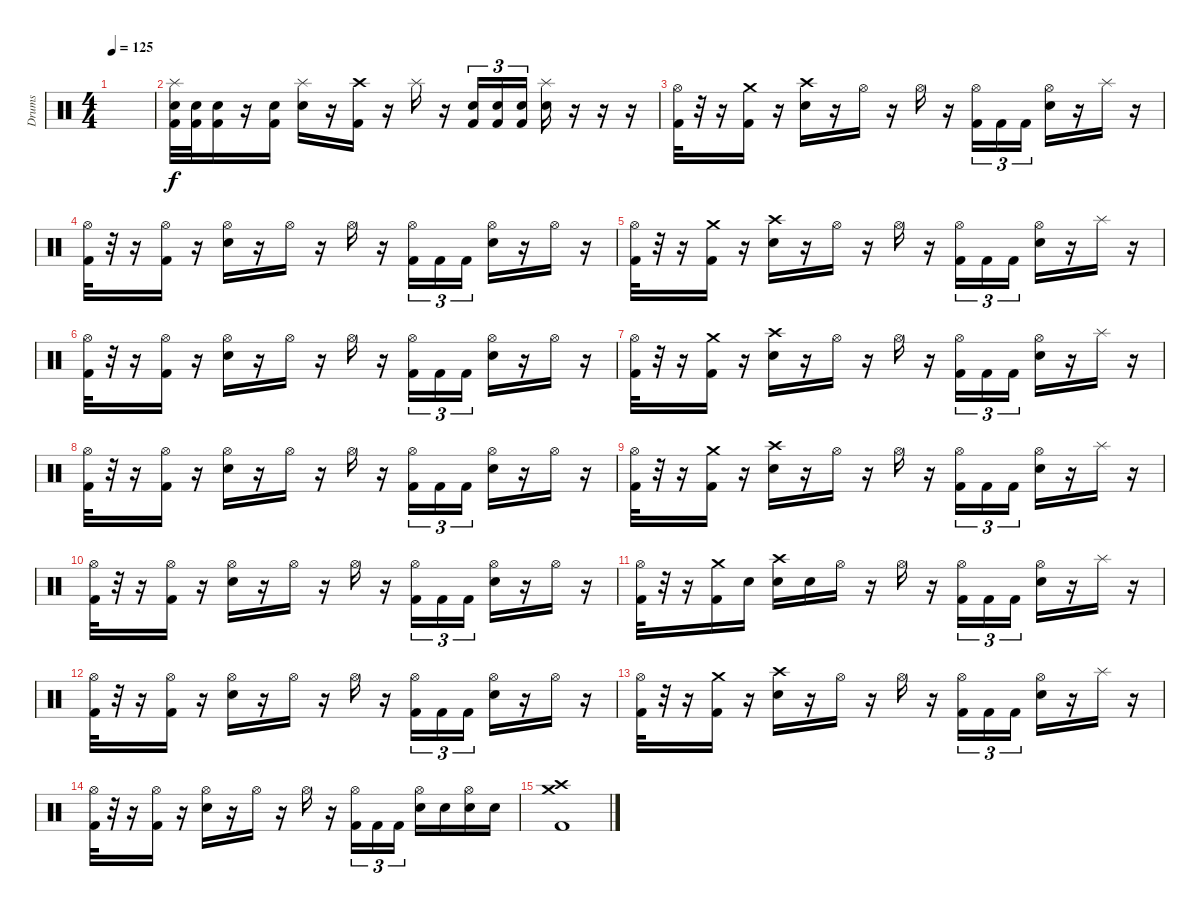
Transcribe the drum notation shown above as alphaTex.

\track ("Drums" "Drums") {instrument percussion}
\staff {score}
\articulation defaults
\ts (4 4)
\tempo 125
\clef neutral
\ks c
|
("Splash (hit)" "Snare (hit) 2" "Kick (hit) 2").32 ("Snare (hit) 2" "Kick (hit) 2").32 ("Snare (hit) 2" "Kick (hit) 2").16 r.16 ("Snare (hit) 2" "Kick (hit) 2").16 ("Splash (hit)" "Snare (hit) 2").16 r.16 ("Crash high (hit)" "Kick (hit) 2").16 r.16 "Splash (hit)".16 r.16 ("Snare (hit) 2" "Kick (hit) 2").16{tu (3 2)} ("Snare (hit) 2" "Kick (hit) 2").16{tu (3 2)} ("Snare (hit) 2" "Kick (hit) 2").16{tu (3 2)} ("Splash (hit)" "Snare (hit) 2").16 r.16 r.16 r.16 |
("Hi-Hat (open)" "Kick (hit) 2").32 r.32 r.16 ("Crash medium (hit)" "Kick (hit) 2").16 r.16 ("Crash high (hit)" "Snare (hit) 2").16 r.16 "Hi-Hat (open)".16 r.16 "Hi-Hat (open)".16 r.16 ("Hi-Hat (open)" "Kick (hit) 2").16{tu (3 2)} "Kick (hit) 2".16{tu (3 2)} "Kick (hit) 2".16{tu (3 2)} ("Hi-Hat (open)" "Snare (hit) 2").16 r.16 "Splash (hit)".16 r.16 |
("Hi-Hat (open)" "Kick (hit) 2").32 r.32 r.16 ("Hi-Hat (open)" "Kick (hit) 2").16 r.16 ("Hi-Hat (open)" "Snare (hit) 2").16 r.16 "Hi-Hat (open)".16 r.16 "Hi-Hat (open)".16 r.16 ("Hi-Hat (open)" "Kick (hit) 2").16{tu (3 2)} "Kick (hit) 2".16{tu (3 2)} "Kick (hit) 2".16{tu (3 2)} ("Hi-Hat (open)" "Snare (hit) 2").16 r.16 "Hi-Hat (open)".16 r.16 |
("Hi-Hat (open)" "Kick (hit) 2").32 r.32 r.16 ("Crash medium (hit)" "Kick (hit) 2").16 r.16 ("Crash high (hit)" "Snare (hit) 2").16 r.16 "Hi-Hat (open)".16 r.16 "Hi-Hat (open)".16 r.16 ("Hi-Hat (open)" "Kick (hit) 2").16{tu (3 2)} "Kick (hit) 2".16{tu (3 2)} "Kick (hit) 2".16{tu (3 2)} ("Hi-Hat (open)" "Snare (hit) 2").16 r.16 "Splash (hit)".16 r.16 |
("Hi-Hat (open)" "Kick (hit) 2").32 r.32 r.16 ("Hi-Hat (open)" "Kick (hit) 2").16 r.16 ("Hi-Hat (open)" "Snare (hit) 2").16 r.16 "Hi-Hat (open)".16 r.16 "Hi-Hat (open)".16 r.16 ("Hi-Hat (open)" "Kick (hit) 2").16{tu (3 2)} "Kick (hit) 2".16{tu (3 2)} "Kick (hit) 2".16{tu (3 2)} ("Hi-Hat (open)" "Snare (hit) 2").16 r.16 "Hi-Hat (open)".16 r.16 |
("Hi-Hat (open)" "Kick (hit) 2").32 r.32 r.16 ("Crash medium (hit)" "Kick (hit) 2").16 r.16 ("Crash high (hit)" "Snare (hit) 2").16 r.16 "Hi-Hat (open)".16 r.16 "Hi-Hat (open)".16 r.16 ("Hi-Hat (open)" "Kick (hit) 2").16{tu (3 2)} "Kick (hit) 2".16{tu (3 2)} "Kick (hit) 2".16{tu (3 2)} ("Hi-Hat (open)" "Snare (hit) 2").16 r.16 "Splash (hit)".16 r.16 |
("Hi-Hat (open)" "Kick (hit) 2").32 r.32 r.16 ("Hi-Hat (open)" "Kick (hit) 2").16 r.16 ("Hi-Hat (open)" "Snare (hit) 2").16 r.16 "Hi-Hat (open)".16 r.16 "Hi-Hat (open)".16 r.16 ("Hi-Hat (open)" "Kick (hit) 2").16{tu (3 2)} "Kick (hit) 2".16{tu (3 2)} "Kick (hit) 2".16{tu (3 2)} ("Hi-Hat (open)" "Snare (hit) 2").16 r.16 "Hi-Hat (open)".16 r.16 |
("Hi-Hat (open)" "Kick (hit) 2").32 r.32 r.16 ("Crash medium (hit)" "Kick (hit) 2").16 r.16 ("Crash high (hit)" "Snare (hit) 2").16 r.16 "Hi-Hat (open)".16 r.16 "Hi-Hat (open)".16 r.16 ("Hi-Hat (open)" "Kick (hit) 2").16{tu (3 2)} "Kick (hit) 2".16{tu (3 2)} "Kick (hit) 2".16{tu (3 2)} ("Hi-Hat (open)" "Snare (hit) 2").16 r.16 "Splash (hit)".16 r.16 |
("Hi-Hat (open)" "Kick (hit) 2").32 r.32 r.16 ("Hi-Hat (open)" "Kick (hit) 2").16 r.16 ("Hi-Hat (open)" "Snare (hit) 2").16 r.16 "Hi-Hat (open)".16 r.16 "Hi-Hat (open)".16 r.16 ("Hi-Hat (open)" "Kick (hit) 2").16{tu (3 2)} "Kick (hit) 2".16{tu (3 2)} "Kick (hit) 2".16{tu (3 2)} ("Hi-Hat (open)" "Snare (hit) 2").16 r.16 "Hi-Hat (open)".16 r.16 |
("Hi-Hat (open)" "Kick (hit) 2").32 r.32 r.16 ("Crash medium (hit)" "Kick (hit) 2").16 "Snare (hit) 2".16 ("Crash high (hit)" "Snare (hit) 2").16 "Snare (hit) 2".16 "Hi-Hat (open)".16 r.16 "Hi-Hat (open)".16 r.16 ("Hi-Hat (open)" "Kick (hit) 2").16{tu (3 2)} "Kick (hit) 2".16{tu (3 2)} "Kick (hit) 2".16{tu (3 2)} ("Hi-Hat (open)" "Snare (hit) 2").16 r.16 "Splash (hit)".16 r.16 |
("Hi-Hat (open)" "Kick (hit) 2").32 r.32 r.16 ("Hi-Hat (open)" "Kick (hit) 2").16 r.16 ("Hi-Hat (open)" "Snare (hit) 2").16 r.16 "Hi-Hat (open)".16 r.16 "Hi-Hat (open)".16 r.16 ("Hi-Hat (open)" "Kick (hit) 2").16{tu (3 2)} "Kick (hit) 2".16{tu (3 2)} "Kick (hit) 2".16{tu (3 2)} ("Hi-Hat (open)" "Snare (hit) 2").16 r.16 "Hi-Hat (open)".16 r.16 |
("Hi-Hat (open)" "Kick (hit) 2").32 r.32 r.16 ("Crash medium (hit)" "Kick (hit) 2").16 r.16 ("Crash high (hit)" "Snare (hit) 2").16 r.16 "Hi-Hat (open)".16 r.16 "Hi-Hat (open)".16 r.16 ("Hi-Hat (open)" "Kick (hit) 2").16{tu (3 2)} "Kick (hit) 2".16{tu (3 2)} "Kick (hit) 2".16{tu (3 2)} ("Hi-Hat (open)" "Snare (hit) 2").16 r.16 "Splash (hit)".16 r.16 |
("Hi-Hat (open)" "Kick (hit) 2").32 r.32 r.16 ("Hi-Hat (open)" "Kick (hit) 2").16 r.16 ("Hi-Hat (open)" "Snare (hit) 2").16 r.16 "Hi-Hat (open)".16 r.16 "Hi-Hat (open)".16 r.16 ("Hi-Hat (open)" "Kick (hit) 2").16{tu (3 2)} "Kick (hit) 2".16{tu (3 2)} "Kick (hit) 2".16{tu (3 2)} ("Hi-Hat (open)" "Snare (hit) 2").16 "Electric Snare (hit)".16 ("Hi-Hat (open)" "Electric Snare (hit)").16 "Electric Snare (hit)".16 |
("Crash high (hit)" "Crash medium (hit)" "Kick (hit) 2").1
